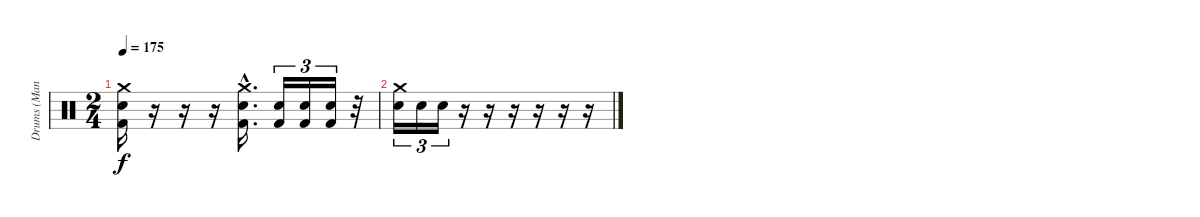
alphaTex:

\track ("Drums (Mancino)" "Drums (Man") {instrument percussion}
\staff {score}
\articulation defaults
\ts (2 4)
\tempo 175
\clef neutral
\ks c
("Crash medium (hit)" "Electric Snare (hit)" "Kick (hit) 2").16{dy f} r.16 r.16 r.16 ("Crash medium (hit)"{hac} "Electric Snare (hit)"{hac} "Kick (hit) 2"{hac}).16{d} ("Electric Snare (hit)" "Kick (hit) 2").16{tu (3 2)} ("Electric Snare (hit)" "Kick (hit) 2").16{tu (3 2)} ("Electric Snare (hit)" "Kick (hit) 2").16{tu (3 2)} r.32 |
("Crash medium (hit)" "Electric Snare (hit)").16{tu (3 2)} "Electric Snare (hit)".16{tu (3 2)} "Electric Snare (hit)".16{tu (3 2)} r.16 r.16 r.16 r.16 r.16 r.16
